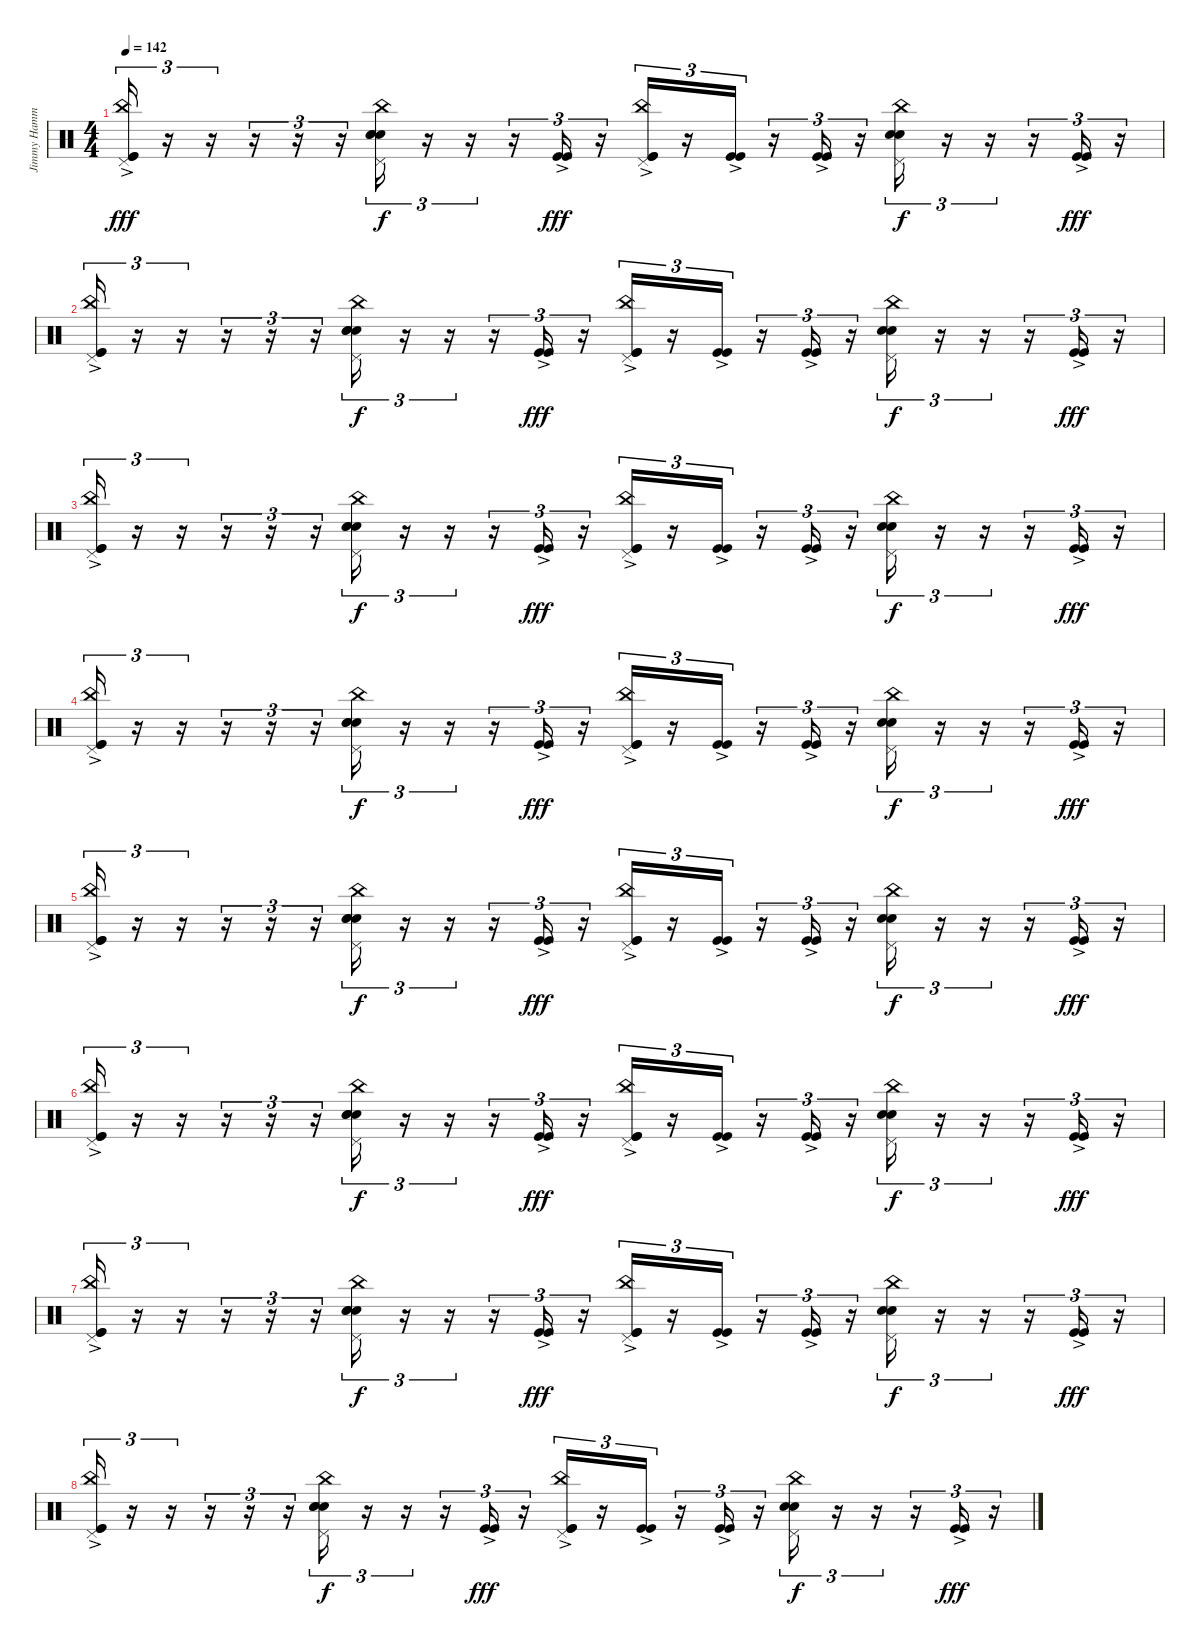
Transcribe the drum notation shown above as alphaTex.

\track ("Jimmy Hammer" "Jimmy Hamm") {instrument percussion}
\staff {score}
\articulation defaults
\ts (4 4)
\tempo 142
\clef neutral
\ks c
("Kick (hit)"{ac} "China (hit)" "Pedal Hi-Hat (hit)" "Kick (hit)"{ac}).16{tu (3 2) dy fff} r.16{tu (3 2)} r.16{tu (3 2)} r.16{tu (3 2)} r.16{tu (3 2)} r.16{tu (3 2)} ("China (hit)" "Electric Snare (hit)" "Electric Snare (hit)" "Electric Snare (hit)" "Pedal Hi-Hat (hit)").16{tu (3 2) dy f} r.16{tu (3 2)} r.16{tu (3 2)} r.16{tu (3 2)} ("Kick (hit)"{ac} "Kick (hit)"{ac}).16{tu (3 2) dy fff} r.16{tu (3 2)} ("China (hit)" "Kick (hit)"{ac} "Kick (hit)"{ac} "Pedal Hi-Hat (hit)").16{tu (3 2)} r.16{tu (3 2)} ("Kick (hit)"{ac} "Kick (hit)"{ac}).16{tu (3 2)} r.16{tu (3 2)} ("Kick (hit)"{ac} "Kick (hit)"{ac}).16{tu (3 2)} r.16{tu (3 2)} ("Electric Snare (hit)" "Electric Snare (hit)" "China (hit)" "Pedal Hi-Hat (hit)").16{tu (3 2) dy f} r.16{tu (3 2)} r.16{tu (3 2)} r.16{tu (3 2)} ("Kick (hit)"{ac} "Kick (hit)"{ac}).16{tu (3 2) dy fff} r.16{tu (3 2)} |
("Kick (hit)"{ac} "China (hit)" "Pedal Hi-Hat (hit)" "Kick (hit)"{ac}).16{tu (3 2)} r.16{tu (3 2)} r.16{tu (3 2)} r.16{tu (3 2)} r.16{tu (3 2)} r.16{tu (3 2)} ("China (hit)" "Electric Snare (hit)" "Electric Snare (hit)" "Electric Snare (hit)" "Pedal Hi-Hat (hit)").16{tu (3 2) dy f} r.16{tu (3 2)} r.16{tu (3 2)} r.16{tu (3 2)} ("Kick (hit)"{ac} "Kick (hit)"{ac}).16{tu (3 2) dy fff} r.16{tu (3 2)} ("China (hit)" "Kick (hit)"{ac} "Kick (hit)"{ac} "Pedal Hi-Hat (hit)").16{tu (3 2)} r.16{tu (3 2)} ("Kick (hit)"{ac} "Kick (hit)"{ac}).16{tu (3 2)} r.16{tu (3 2)} ("Kick (hit)"{ac} "Kick (hit)"{ac}).16{tu (3 2)} r.16{tu (3 2)} ("Electric Snare (hit)" "Electric Snare (hit)" "China (hit)" "Pedal Hi-Hat (hit)").16{tu (3 2) dy f} r.16{tu (3 2)} r.16{tu (3 2)} r.16{tu (3 2)} ("Kick (hit)"{ac} "Kick (hit)"{ac}).16{tu (3 2) dy fff} r.16{tu (3 2)} |
("Kick (hit)"{ac} "China (hit)" "Pedal Hi-Hat (hit)" "Kick (hit)"{ac}).16{tu (3 2)} r.16{tu (3 2)} r.16{tu (3 2)} r.16{tu (3 2)} r.16{tu (3 2)} r.16{tu (3 2)} ("China (hit)" "Electric Snare (hit)" "Electric Snare (hit)" "Electric Snare (hit)" "Pedal Hi-Hat (hit)").16{tu (3 2) dy f} r.16{tu (3 2)} r.16{tu (3 2)} r.16{tu (3 2)} ("Kick (hit)"{ac} "Kick (hit)"{ac}).16{tu (3 2) dy fff} r.16{tu (3 2)} ("China (hit)" "Kick (hit)"{ac} "Kick (hit)"{ac} "Pedal Hi-Hat (hit)").16{tu (3 2)} r.16{tu (3 2)} ("Kick (hit)"{ac} "Kick (hit)"{ac}).16{tu (3 2)} r.16{tu (3 2)} ("Kick (hit)"{ac} "Kick (hit)"{ac}).16{tu (3 2)} r.16{tu (3 2)} ("Electric Snare (hit)" "Electric Snare (hit)" "China (hit)" "Pedal Hi-Hat (hit)").16{tu (3 2) dy f} r.16{tu (3 2)} r.16{tu (3 2)} r.16{tu (3 2)} ("Kick (hit)"{ac} "Kick (hit)"{ac}).16{tu (3 2) dy fff} r.16{tu (3 2)} |
("Kick (hit)"{ac} "China (hit)" "Pedal Hi-Hat (hit)" "Kick (hit)"{ac}).16{tu (3 2)} r.16{tu (3 2)} r.16{tu (3 2)} r.16{tu (3 2)} r.16{tu (3 2)} r.16{tu (3 2)} ("China (hit)" "Electric Snare (hit)" "Electric Snare (hit)" "Electric Snare (hit)" "Pedal Hi-Hat (hit)").16{tu (3 2) dy f} r.16{tu (3 2)} r.16{tu (3 2)} r.16{tu (3 2)} ("Kick (hit)"{ac} "Kick (hit)"{ac}).16{tu (3 2) dy fff} r.16{tu (3 2)} ("China (hit)" "Kick (hit)"{ac} "Kick (hit)"{ac} "Pedal Hi-Hat (hit)").16{tu (3 2)} r.16{tu (3 2)} ("Kick (hit)"{ac} "Kick (hit)"{ac}).16{tu (3 2)} r.16{tu (3 2)} ("Kick (hit)"{ac} "Kick (hit)"{ac}).16{tu (3 2)} r.16{tu (3 2)} ("Electric Snare (hit)" "Electric Snare (hit)" "China (hit)" "Pedal Hi-Hat (hit)").16{tu (3 2) dy f} r.16{tu (3 2)} r.16{tu (3 2)} r.16{tu (3 2)} ("Kick (hit)"{ac} "Kick (hit)"{ac}).16{tu (3 2) dy fff} r.16{tu (3 2)} |
("Kick (hit)"{ac} "China (hit)" "Pedal Hi-Hat (hit)" "Kick (hit)"{ac}).16{tu (3 2)} r.16{tu (3 2)} r.16{tu (3 2)} r.16{tu (3 2)} r.16{tu (3 2)} r.16{tu (3 2)} ("China (hit)" "Electric Snare (hit)" "Electric Snare (hit)" "Electric Snare (hit)" "Pedal Hi-Hat (hit)").16{tu (3 2) dy f} r.16{tu (3 2)} r.16{tu (3 2)} r.16{tu (3 2)} ("Kick (hit)"{ac} "Kick (hit)"{ac}).16{tu (3 2) dy fff} r.16{tu (3 2)} ("China (hit)" "Kick (hit)"{ac} "Kick (hit)"{ac} "Pedal Hi-Hat (hit)").16{tu (3 2)} r.16{tu (3 2)} ("Kick (hit)"{ac} "Kick (hit)"{ac}).16{tu (3 2)} r.16{tu (3 2)} ("Kick (hit)"{ac} "Kick (hit)"{ac}).16{tu (3 2)} r.16{tu (3 2)} ("Electric Snare (hit)" "Electric Snare (hit)" "China (hit)" "Pedal Hi-Hat (hit)").16{tu (3 2) dy f} r.16{tu (3 2)} r.16{tu (3 2)} r.16{tu (3 2)} ("Kick (hit)"{ac} "Kick (hit)"{ac}).16{tu (3 2) dy fff} r.16{tu (3 2)} |
("Kick (hit)"{ac} "China (hit)" "Pedal Hi-Hat (hit)" "Kick (hit)"{ac}).16{tu (3 2)} r.16{tu (3 2)} r.16{tu (3 2)} r.16{tu (3 2)} r.16{tu (3 2)} r.16{tu (3 2)} ("China (hit)" "Electric Snare (hit)" "Electric Snare (hit)" "Electric Snare (hit)" "Pedal Hi-Hat (hit)").16{tu (3 2) dy f} r.16{tu (3 2)} r.16{tu (3 2)} r.16{tu (3 2)} ("Kick (hit)"{ac} "Kick (hit)"{ac}).16{tu (3 2) dy fff} r.16{tu (3 2)} ("China (hit)" "Kick (hit)"{ac} "Kick (hit)"{ac} "Pedal Hi-Hat (hit)").16{tu (3 2)} r.16{tu (3 2)} ("Kick (hit)"{ac} "Kick (hit)"{ac}).16{tu (3 2)} r.16{tu (3 2)} ("Kick (hit)"{ac} "Kick (hit)"{ac}).16{tu (3 2)} r.16{tu (3 2)} ("Electric Snare (hit)" "Electric Snare (hit)" "China (hit)" "Pedal Hi-Hat (hit)").16{tu (3 2) dy f} r.16{tu (3 2)} r.16{tu (3 2)} r.16{tu (3 2)} ("Kick (hit)"{ac} "Kick (hit)"{ac}).16{tu (3 2) dy fff} r.16{tu (3 2)} |
("Kick (hit)"{ac} "China (hit)" "Pedal Hi-Hat (hit)" "Kick (hit)"{ac}).16{tu (3 2)} r.16{tu (3 2)} r.16{tu (3 2)} r.16{tu (3 2)} r.16{tu (3 2)} r.16{tu (3 2)} ("China (hit)" "Electric Snare (hit)" "Electric Snare (hit)" "Electric Snare (hit)" "Pedal Hi-Hat (hit)").16{tu (3 2) dy f} r.16{tu (3 2)} r.16{tu (3 2)} r.16{tu (3 2)} ("Kick (hit)"{ac} "Kick (hit)"{ac}).16{tu (3 2) dy fff} r.16{tu (3 2)} ("China (hit)" "Kick (hit)"{ac} "Kick (hit)"{ac} "Pedal Hi-Hat (hit)").16{tu (3 2)} r.16{tu (3 2)} ("Kick (hit)"{ac} "Kick (hit)"{ac}).16{tu (3 2)} r.16{tu (3 2)} ("Kick (hit)"{ac} "Kick (hit)"{ac}).16{tu (3 2)} r.16{tu (3 2)} ("Electric Snare (hit)" "Electric Snare (hit)" "China (hit)" "Pedal Hi-Hat (hit)").16{tu (3 2) dy f} r.16{tu (3 2)} r.16{tu (3 2)} r.16{tu (3 2)} ("Kick (hit)"{ac} "Kick (hit)"{ac}).16{tu (3 2) dy fff} r.16{tu (3 2)} |
("Kick (hit)"{ac} "China (hit)" "Pedal Hi-Hat (hit)" "Kick (hit)"{ac}).16{tu (3 2)} r.16{tu (3 2)} r.16{tu (3 2)} r.16{tu (3 2)} r.16{tu (3 2)} r.16{tu (3 2)} ("China (hit)" "Electric Snare (hit)" "Electric Snare (hit)" "Electric Snare (hit)" "Pedal Hi-Hat (hit)").16{tu (3 2) dy f} r.16{tu (3 2)} r.16{tu (3 2)} r.16{tu (3 2)} ("Kick (hit)"{ac} "Kick (hit)"{ac}).16{tu (3 2) dy fff} r.16{tu (3 2)} ("China (hit)" "Kick (hit)"{ac} "Kick (hit)"{ac} "Pedal Hi-Hat (hit)").16{tu (3 2)} r.16{tu (3 2)} ("Kick (hit)"{ac} "Kick (hit)"{ac}).16{tu (3 2)} r.16{tu (3 2)} ("Kick (hit)"{ac} "Kick (hit)"{ac}).16{tu (3 2)} r.16{tu (3 2)} ("Electric Snare (hit)" "Electric Snare (hit)" "China (hit)" "Pedal Hi-Hat (hit)").16{tu (3 2) dy f} r.16{tu (3 2)} r.16{tu (3 2)} r.16{tu (3 2)} ("Kick (hit)"{ac} "Kick (hit)"{ac}).16{tu (3 2) dy fff} r.16{tu (3 2)}
